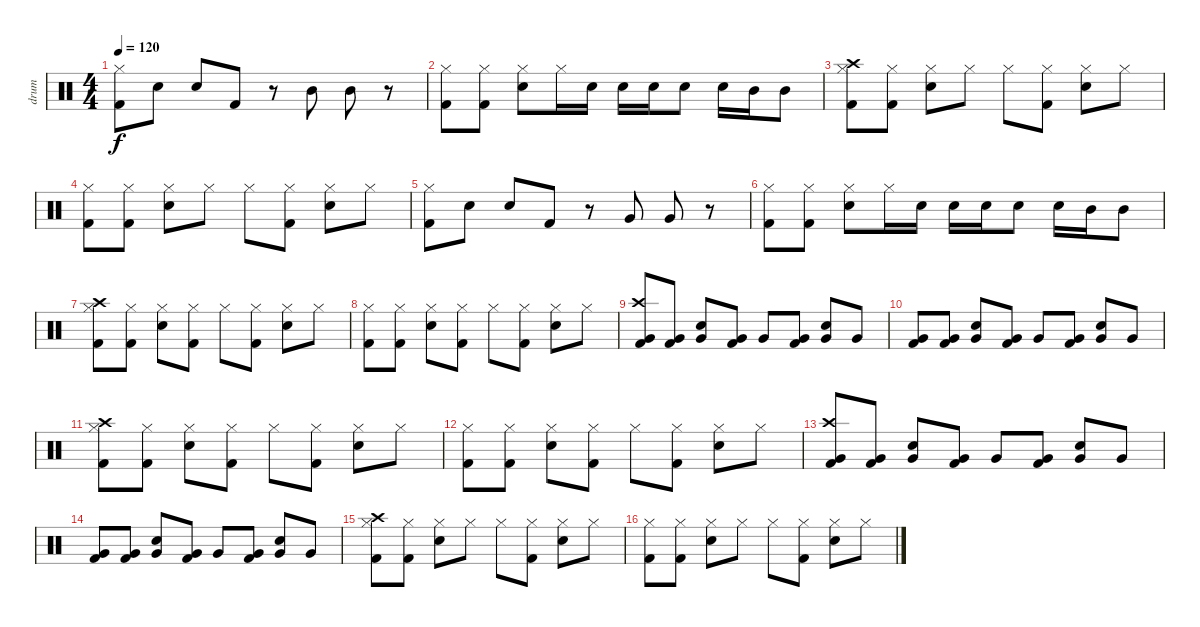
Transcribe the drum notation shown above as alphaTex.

\track ("drum" "drum") {instrument percussion}
\staff {score}
\articulation defaults
\ts (4 4)
\tempo 120
\clef neutral
\ks c
("Hi-Hat (closed)" "Kick (hit) 2").8{dy f} "Electric Snare (hit)".8 "Electric Snare (hit)".8 "Kick (hit) 2".8 r.8 "Mid Tom (hit)".8 "Mid Tom (hit)".8 r.8 |
("Hi-Hat (closed)" "Kick (hit) 2").8 ("Hi-Hat (closed)" "Kick (hit) 2").8 ("Hi-Hat (closed)" "Electric Snare (hit)").8 "Hi-Hat (closed)".16 "Electric Snare (hit)".16 "Electric Snare (hit)".16 "Electric Snare (hit)".16 "Electric Snare (hit)".8 "Electric Snare (hit)".16 "Mid Tom (hit)".16 "Mid Tom (hit)".8 |
("Crash high (hit)" "Hi-Hat (closed)" "Kick (hit) 2").8 ("Hi-Hat (closed)" "Kick (hit) 2").8 ("Hi-Hat (closed)" "Electric Snare (hit)").8 "Hi-Hat (closed)".8 "Hi-Hat (closed)".8 ("Hi-Hat (closed)" "Kick (hit) 2").8 ("Hi-Hat (closed)" "Electric Snare (hit)").8 "Hi-Hat (closed)".8 |
("Hi-Hat (closed)" "Kick (hit) 2").8 ("Hi-Hat (closed)" "Kick (hit) 2").8 ("Hi-Hat (closed)" "Electric Snare (hit)").8 "Hi-Hat (closed)".8 "Hi-Hat (closed)".8 ("Hi-Hat (closed)" "Kick (hit) 2").8 ("Hi-Hat (closed)" "Electric Snare (hit)").8 "Hi-Hat (closed)".8 |
("Hi-Hat (closed)" "Kick (hit) 2").8 "Electric Snare (hit)".8 "Electric Snare (hit)".8 "Kick (hit) 2".8 r.8 "Very Low Tom (hit)".8 "Very Low Tom (hit)".8 r.8 |
("Hi-Hat (closed)" "Kick (hit) 2").8 ("Hi-Hat (closed)" "Kick (hit) 2").8 ("Hi-Hat (closed)" "Electric Snare (hit)").8 "Hi-Hat (closed)".16 "Electric Snare (hit)".16 "Electric Snare (hit)".16 "Electric Snare (hit)".16 "Electric Snare (hit)".8 "Electric Snare (hit)".16 "Mid Tom (hit)".16 "Mid Tom (hit)".8 |
("Crash high (hit)" "Hi-Hat (closed)" "Kick (hit) 2").8 ("Hi-Hat (closed)" "Kick (hit) 2").8 ("Hi-Hat (closed)" "Electric Snare (hit)").8 ("Hi-Hat (closed)" "Kick (hit) 2").8 "Hi-Hat (closed)".8 ("Hi-Hat (closed)" "Kick (hit) 2").8 ("Hi-Hat (closed)" "Electric Snare (hit)").8 "Hi-Hat (closed)".8 |
("Hi-Hat (closed)" "Kick (hit) 2").8 ("Hi-Hat (closed)" "Kick (hit) 2").8 ("Hi-Hat (closed)" "Electric Snare (hit)").8 ("Hi-Hat (closed)" "Kick (hit) 2").8 "Hi-Hat (closed)".8 ("Hi-Hat (closed)" "Kick (hit) 2").8 ("Hi-Hat (closed)" "Electric Snare (hit)").8 "Hi-Hat (closed)".8 |
("Crash high (hit)" "Very Low Tom (hit)" "Kick (hit) 2").8 ("Very Low Tom (hit)" "Kick (hit) 2").8 ("Very Low Tom (hit)" "Electric Snare (hit)").8 ("Very Low Tom (hit)" "Kick (hit) 2").8 "Very Low Tom (hit)".8 ("Very Low Tom (hit)" "Kick (hit) 2").8 ("Very Low Tom (hit)" "Electric Snare (hit)").8 "Very Low Tom (hit)".8 |
("Very Low Tom (hit)" "Kick (hit) 2").8 ("Very Low Tom (hit)" "Kick (hit) 2").8 ("Very Low Tom (hit)" "Electric Snare (hit)").8 ("Very Low Tom (hit)" "Kick (hit) 2").8 "Very Low Tom (hit)".8 ("Very Low Tom (hit)" "Kick (hit) 2").8 ("Very Low Tom (hit)" "Electric Snare (hit)").8 "Very Low Tom (hit)".8 |
("Crash high (hit)" "Hi-Hat (closed)" "Kick (hit) 2").8 ("Hi-Hat (closed)" "Kick (hit) 2").8 ("Hi-Hat (closed)" "Electric Snare (hit)").8 ("Hi-Hat (closed)" "Kick (hit) 2").8 "Hi-Hat (closed)".8 ("Hi-Hat (closed)" "Kick (hit) 2").8 ("Hi-Hat (closed)" "Electric Snare (hit)").8 "Hi-Hat (closed)".8 |
("Hi-Hat (closed)" "Kick (hit) 2").8 ("Hi-Hat (closed)" "Kick (hit) 2").8 ("Hi-Hat (closed)" "Electric Snare (hit)").8 ("Hi-Hat (closed)" "Kick (hit) 2").8 "Hi-Hat (closed)".8 ("Hi-Hat (closed)" "Kick (hit) 2").8 ("Hi-Hat (closed)" "Electric Snare (hit)").8 "Hi-Hat (closed)".8 |
("Crash high (hit)" "Very Low Tom (hit)" "Kick (hit) 2").8 ("Very Low Tom (hit)" "Kick (hit) 2").8 ("Very Low Tom (hit)" "Electric Snare (hit)").8 ("Very Low Tom (hit)" "Kick (hit) 2").8 "Very Low Tom (hit)".8 ("Very Low Tom (hit)" "Kick (hit) 2").8 ("Very Low Tom (hit)" "Electric Snare (hit)").8 "Very Low Tom (hit)".8 |
("Very Low Tom (hit)" "Kick (hit) 2").8 ("Very Low Tom (hit)" "Kick (hit) 2").8 ("Very Low Tom (hit)" "Electric Snare (hit)").8 ("Very Low Tom (hit)" "Kick (hit) 2").8 "Very Low Tom (hit)".8 ("Very Low Tom (hit)" "Kick (hit) 2").8 ("Very Low Tom (hit)" "Electric Snare (hit)").8 "Very Low Tom (hit)".8 |
("Crash high (hit)" "Hi-Hat (closed)" "Kick (hit) 2").8 ("Hi-Hat (closed)" "Kick (hit) 2").8 ("Hi-Hat (closed)" "Electric Snare (hit)").8 "Hi-Hat (closed)".8 "Hi-Hat (closed)".8 ("Hi-Hat (closed)" "Kick (hit) 2").8 ("Hi-Hat (closed)" "Electric Snare (hit)").8 "Hi-Hat (closed)".8 |
("Hi-Hat (closed)" "Kick (hit) 2").8 ("Hi-Hat (closed)" "Kick (hit) 2").8 ("Hi-Hat (closed)" "Electric Snare (hit)").8 "Hi-Hat (closed)".8 "Hi-Hat (closed)".8 ("Hi-Hat (closed)" "Kick (hit) 2").8 ("Hi-Hat (closed)" "Electric Snare (hit)").8 "Hi-Hat (closed)".8
